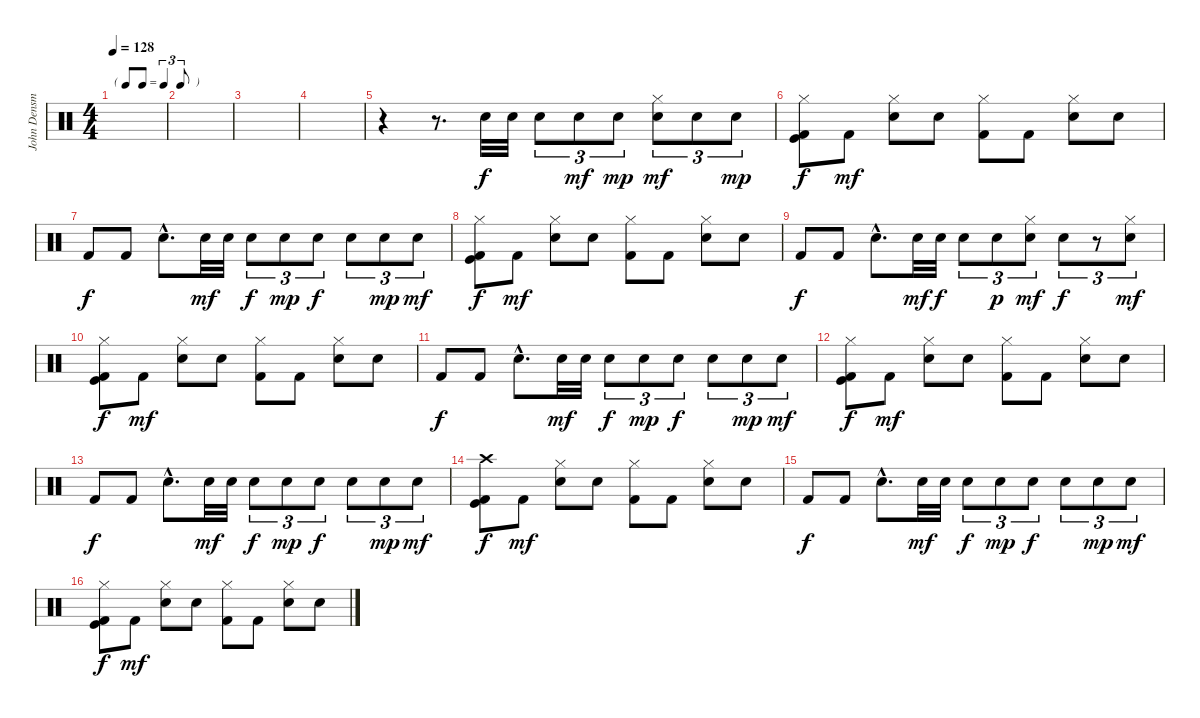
\track ("John Densmore" "John Densm") {instrument percussion}
\staff {score}
\articulation defaults
\ts (4 4)
\tf triplet8th
\tempo 128
\clef neutral
\ks c
|
|
|
|
r.4 r.8{d} "Snare (hit) 2".32 "Electric Snare (hit)".32 "Electric Snare (hit)".8{tu (3 2) dy f} "Electric Snare (hit)".8{tu (3 2) dy mf} "Electric Snare (hit)".8{tu (3 2) dy mp} ("Snare (hit) 2" "Hi-Hat (closed)").8{tu (3 2) dy mf} "Snare (hit) 2".8{tu (3 2)} "Snare (hit) 2".8{tu (3 2) dy mp} |
("Kick (hit) 2" "Hi-Hat (closed)" "Kick (hit)").8{dy f} "Kick (hit) 2".8{dy mf} ("Electric Snare (hit)" "Hi-Hat (closed)").8 "Electric Snare (hit)".8 ("Kick (hit) 2" "Hi-Hat (closed)").8 "Kick (hit) 2".8 ("Electric Snare (hit)" "Hi-Hat (closed)").8 "Electric Snare (hit)".8 |
"Kick (hit) 2".8{dy f} "Kick (hit) 2".8 "Electric Snare (hit)"{hac}.8{d} "Snare (hit) 2".32{dy mf} "Electric Snare (hit)".32 "Electric Snare (hit)".8{tu (3 2) dy f} "Electric Snare (hit)".8{tu (3 2) dy mp} "Electric Snare (hit)".8{tu (3 2) dy f} "Snare (hit) 2".8{tu (3 2)} "Snare (hit) 2".8{tu (3 2) dy mp} "Snare (hit) 2".8{tu (3 2) dy mf} |
("Kick (hit) 2" "Hi-Hat (closed)" "Kick (hit)").8{dy f} "Kick (hit) 2".8{dy mf} ("Electric Snare (hit)" "Hi-Hat (closed)").8 "Electric Snare (hit)".8 ("Kick (hit) 2" "Hi-Hat (closed)").8 "Kick (hit) 2".8 ("Electric Snare (hit)" "Hi-Hat (closed)").8 "Electric Snare (hit)".8 |
"Kick (hit) 2".8{dy f} "Kick (hit) 2".8 "Electric Snare (hit)"{hac}.8{d} "Snare (hit) 2".32{dy mf} "Electric Snare (hit)".32{dy f} "Electric Snare (hit)".8{tu (3 2)} "Snare (hit) 2".8{tu (3 2) dy p} ("Electric Snare (hit)" "Hi-Hat (closed)").8{tu (3 2) dy mf} "Snare (hit) 2".8{tu (3 2) dy f} r.8{tu (3 2)} ("Snare (hit) 2" "Hi-Hat (closed)").8{tu (3 2) dy mf} |
("Kick (hit) 2" "Hi-Hat (closed)" "Kick (hit)").8{dy f} "Kick (hit) 2".8{dy mf} ("Electric Snare (hit)" "Hi-Hat (closed)").8 "Electric Snare (hit)".8 ("Kick (hit) 2" "Hi-Hat (closed)").8 "Kick (hit) 2".8 ("Electric Snare (hit)" "Hi-Hat (closed)").8 "Electric Snare (hit)".8 |
"Kick (hit) 2".8{dy f} "Kick (hit) 2".8 "Electric Snare (hit)"{hac}.8{d} "Snare (hit) 2".32{dy mf} "Electric Snare (hit)".32 "Electric Snare (hit)".8{tu (3 2) dy f} "Electric Snare (hit)".8{tu (3 2) dy mp} "Electric Snare (hit)".8{tu (3 2) dy f} "Snare (hit) 2".8{tu (3 2)} "Snare (hit) 2".8{tu (3 2) dy mp} "Snare (hit) 2".8{tu (3 2) dy mf} |
("Kick (hit) 2" "Hi-Hat (closed)" "Kick (hit)").8{dy f} "Kick (hit) 2".8{dy mf} ("Electric Snare (hit)" "Hi-Hat (closed)").8 "Electric Snare (hit)".8 ("Kick (hit) 2" "Hi-Hat (closed)").8 "Kick (hit) 2".8 ("Electric Snare (hit)" "Hi-Hat (closed)").8 "Electric Snare (hit)".8 |
"Kick (hit) 2".8{dy f} "Kick (hit) 2".8 "Electric Snare (hit)"{hac}.8{d} "Snare (hit) 2".32{dy mf} "Electric Snare (hit)".32 "Electric Snare (hit)".8{tu (3 2) dy f} "Electric Snare (hit)".8{tu (3 2) dy mp} "Electric Snare (hit)".8{tu (3 2) dy f} "Snare (hit) 2".8{tu (3 2)} "Snare (hit) 2".8{tu (3 2) dy mp} "Snare (hit) 2".8{tu (3 2) dy mf} |
("Kick (hit) 2" "Kick (hit)" "Crash high (hit)").8{dy f} "Kick (hit) 2".8{dy mf} ("Electric Snare (hit)" "Hi-Hat (closed)").8 "Electric Snare (hit)".8 ("Kick (hit) 2" "Hi-Hat (closed)").8 "Kick (hit) 2".8 ("Electric Snare (hit)" "Hi-Hat (closed)").8 "Electric Snare (hit)".8 |
"Kick (hit) 2".8{dy f} "Kick (hit) 2".8 "Electric Snare (hit)"{hac}.8{d} "Snare (hit) 2".32{dy mf} "Electric Snare (hit)".32 "Electric Snare (hit)".8{tu (3 2) dy f} "Electric Snare (hit)".8{tu (3 2) dy mp} "Electric Snare (hit)".8{tu (3 2) dy f} "Snare (hit) 2".8{tu (3 2)} "Snare (hit) 2".8{tu (3 2) dy mp} "Snare (hit) 2".8{tu (3 2) dy mf} |
("Kick (hit) 2" "Hi-Hat (closed)" "Kick (hit)").8{dy f} "Kick (hit) 2".8{dy mf} ("Electric Snare (hit)" "Hi-Hat (closed)").8 "Electric Snare (hit)".8 ("Kick (hit) 2" "Hi-Hat (closed)").8 "Kick (hit) 2".8 ("Electric Snare (hit)" "Hi-Hat (closed)").8 "Electric Snare (hit)".8
